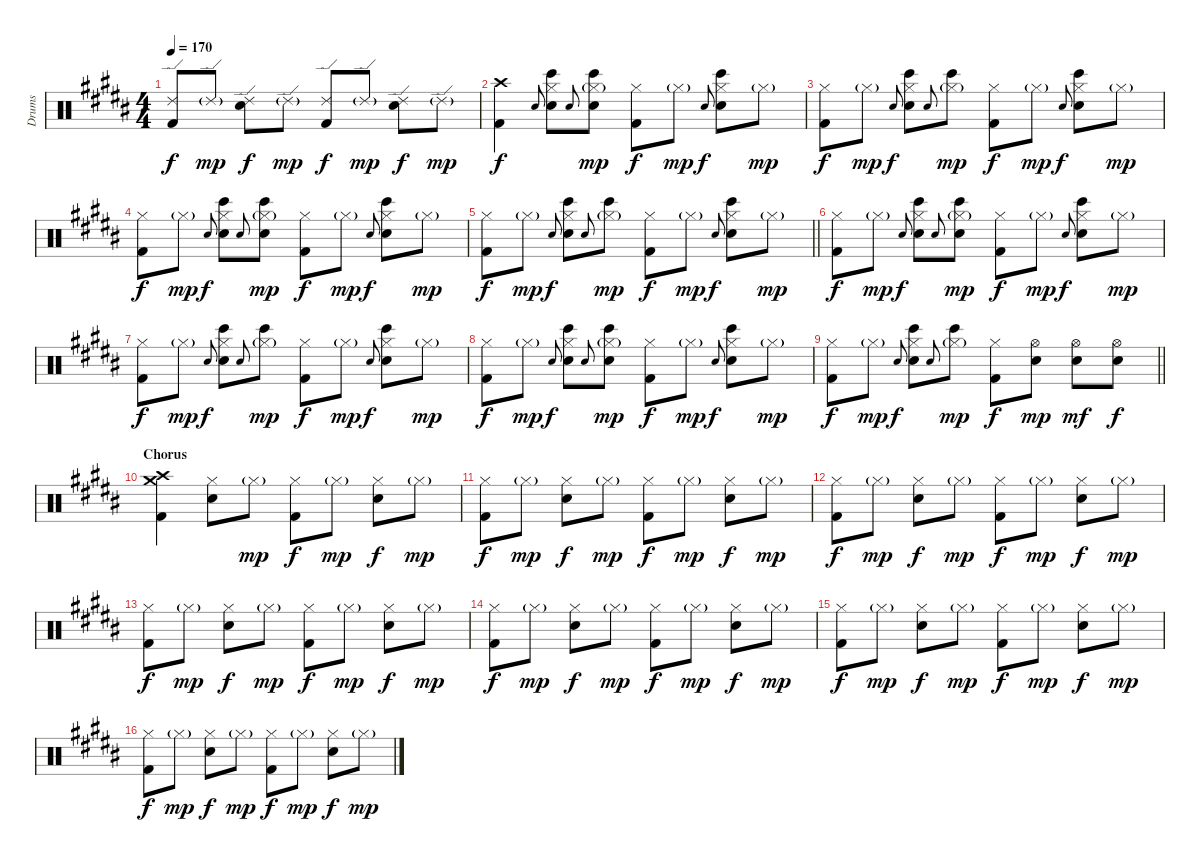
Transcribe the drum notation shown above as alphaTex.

\track ("Drums" "Drums") {instrument percussion}
\staff {score}
\articulation defaults
\ts (4 4)
\tempo 170
\clef neutral
\ks b
("Ride (edge) 2" "Kick (hit) 2").8{dy f} "Ride (edge) 2"{g}.8{dy mp} ("Ride (edge) 2" "Electric Snare (hit)").8{dy f} "Ride (edge) 2"{g}.8{dy mp} ("Ride (edge) 2" "Kick (hit) 2").8{dy f} "Ride (edge) 2"{g}.8{dy mp} ("Ride (edge) 2" "Electric Snare (hit)").8{dy f} "Ride (edge) 2"{g}.8{dy mp} |
("Crash high (hit)" "Kick (hit) 2").4{dy f} "Snare (hit)".8{gr onbeat} ("Hi-Hat (closed)" "Bongo High (hit)" "Electric Snare (hit)").8 "Snare (hit)".8{gr onbeat} ("Hi-Hat (closed)"{g} "Bongo High (hit)" "Electric Snare (hit)").8{dy mp} ("Hi-Hat (closed)" "Kick (hit) 2").8{dy f} "Hi-Hat (closed)"{g}.8{dy mp} "Snare (hit)".8{gr onbeat dy f} ("Hi-Hat (closed)" "Bongo High (hit)" "Electric Snare (hit)").8 "Hi-Hat (closed)"{g}.8{dy mp} |
("Hi-Hat (closed)" "Kick (hit) 2").8{dy f} "Hi-Hat (closed)"{g}.8{dy mp} "Snare (hit)".8{gr onbeat dy f} ("Hi-Hat (closed)" "Bongo High (hit)" "Electric Snare (hit)").8 "Snare (hit)".8{gr onbeat} ("Hi-Hat (closed)"{g} "Bongo High (hit)").8{dy mp} ("Hi-Hat (closed)" "Kick (hit) 2").8{dy f} "Hi-Hat (closed)"{g}.8{dy mp} "Snare (hit)".8{gr onbeat dy f} ("Hi-Hat (closed)" "Bongo High (hit)" "Electric Snare (hit)").8 "Hi-Hat (closed)"{g}.8{dy mp} |
("Hi-Hat (closed)" "Kick (hit) 2").8{dy f} "Hi-Hat (closed)"{g}.8{dy mp} "Snare (hit)".8{gr onbeat dy f} ("Hi-Hat (closed)" "Bongo High (hit)" "Electric Snare (hit)").8 "Snare (hit)".8{gr onbeat} ("Hi-Hat (closed)"{g} "Bongo High (hit)" "Electric Snare (hit)").8{dy mp} ("Hi-Hat (closed)" "Kick (hit) 2").8{dy f} "Hi-Hat (closed)"{g}.8{dy mp} "Snare (hit)".8{gr onbeat dy f} ("Hi-Hat (closed)" "Bongo High (hit)" "Electric Snare (hit)").8 "Hi-Hat (closed)"{g}.8{dy mp} |
\barLineRight lightlight
("Hi-Hat (closed)" "Kick (hit) 2").8{dy f} "Hi-Hat (closed)"{g}.8{dy mp} "Snare (hit)".8{gr onbeat dy f} ("Hi-Hat (closed)" "Bongo High (hit)" "Electric Snare (hit)").8 "Snare (hit)".8{gr onbeat} ("Hi-Hat (closed)"{g} "Bongo High (hit)").8{dy mp} ("Hi-Hat (closed)" "Kick (hit) 2").8{dy f} "Hi-Hat (closed)"{g}.8{dy mp} "Snare (hit)".8{gr onbeat dy f} ("Hi-Hat (closed)" "Bongo High (hit)" "Electric Snare (hit)").8 "Hi-Hat (closed)"{g}.8{dy mp} |
("Hi-Hat (closed)" "Kick (hit) 2").8{dy f} "Hi-Hat (closed)"{g}.8{dy mp} "Snare (hit)".8{gr onbeat dy f} ("Hi-Hat (closed)" "Bongo High (hit)" "Electric Snare (hit)").8 "Snare (hit)".8{gr onbeat} ("Hi-Hat (closed)"{g} "Bongo High (hit)" "Electric Snare (hit)").8{dy mp} ("Hi-Hat (closed)" "Kick (hit) 2").8{dy f} "Hi-Hat (closed)"{g}.8{dy mp} "Snare (hit)".8{gr onbeat dy f} ("Hi-Hat (closed)" "Bongo High (hit)" "Electric Snare (hit)").8 "Hi-Hat (closed)"{g}.8{dy mp} |
("Hi-Hat (closed)" "Kick (hit) 2").8{dy f} "Hi-Hat (closed)"{g}.8{dy mp} "Snare (hit)".8{gr onbeat dy f} ("Hi-Hat (closed)" "Bongo High (hit)" "Electric Snare (hit)").8 "Snare (hit)".8{gr onbeat} ("Hi-Hat (closed)"{g} "Bongo High (hit)").8{dy mp} ("Hi-Hat (closed)" "Kick (hit) 2").8{dy f} "Hi-Hat (closed)"{g}.8{dy mp} "Snare (hit)".8{gr onbeat dy f} ("Hi-Hat (closed)" "Bongo High (hit)" "Electric Snare (hit)").8 "Hi-Hat (closed)"{g}.8{dy mp} |
("Hi-Hat (closed)" "Kick (hit) 2").8{dy f} "Hi-Hat (closed)"{g}.8{dy mp} "Snare (hit)".8{gr onbeat dy f} ("Hi-Hat (closed)" "Bongo High (hit)" "Electric Snare (hit)").8 "Snare (hit)".8{gr onbeat} ("Hi-Hat (closed)"{g} "Bongo High (hit)" "Electric Snare (hit)").8{dy mp} ("Hi-Hat (closed)" "Kick (hit) 2").8{dy f} "Hi-Hat (closed)"{g}.8{dy mp} "Snare (hit)".8{gr onbeat dy f} ("Hi-Hat (closed)" "Bongo High (hit)" "Electric Snare (hit)").8 "Hi-Hat (closed)"{g}.8{dy mp} |
\barLineRight lightlight
("Hi-Hat (closed)" "Kick (hit) 2").8{dy f} "Hi-Hat (closed)"{g}.8{dy mp} "Snare (hit)".8{gr onbeat dy f} ("Hi-Hat (closed)" "Bongo High (hit)" "Electric Snare (hit)").8 "Snare (hit)".8{gr onbeat} ("Hi-Hat (closed)"{g} "Bongo High (hit)").8{dy mp} ("Hi-Hat (closed)" "Kick (hit) 2").8{dy f} ("Hi-Hat (open)" "Electric Snare (hit)").8{dy mp} ("Hi-Hat (open)" "Electric Snare (hit)").8{dy mf} ("Hi-Hat (open)" "Electric Snare (hit)").8{dy f} |
\section ("" "Chorus")
("Crash medium (hit)" "Crash high (hit)" "Kick (hit) 2").4 ("Hi-Hat (closed)" "Electric Snare (hit)").8 "Hi-Hat (closed)"{g}.8{dy mp} ("Hi-Hat (closed)" "Kick (hit) 2").8{dy f} "Hi-Hat (closed)"{g}.8{dy mp} ("Hi-Hat (closed)" "Electric Snare (hit)").8{dy f} "Hi-Hat (closed)"{g}.8{dy mp} |
("Hi-Hat (closed)" "Kick (hit) 2").8{dy f} "Hi-Hat (closed)"{g}.8{dy mp} ("Hi-Hat (closed)" "Electric Snare (hit)").8{dy f} "Hi-Hat (closed)"{g}.8{dy mp} ("Hi-Hat (closed)" "Kick (hit) 2").8{dy f} "Hi-Hat (closed)"{g}.8{dy mp} ("Hi-Hat (closed)" "Electric Snare (hit)").8{dy f} "Hi-Hat (closed)"{g}.8{dy mp} |
("Hi-Hat (closed)" "Kick (hit) 2").8{dy f} "Hi-Hat (closed)"{g}.8{dy mp} ("Hi-Hat (closed)" "Electric Snare (hit)").8{dy f} "Hi-Hat (closed)"{g}.8{dy mp} ("Hi-Hat (closed)" "Kick (hit) 2").8{dy f} "Hi-Hat (closed)"{g}.8{dy mp} ("Hi-Hat (closed)" "Electric Snare (hit)").8{dy f} "Hi-Hat (closed)"{g}.8{dy mp} |
("Hi-Hat (closed)" "Kick (hit) 2").8{dy f} "Hi-Hat (closed)"{g}.8{dy mp} ("Hi-Hat (closed)" "Electric Snare (hit)").8{dy f} "Hi-Hat (closed)"{g}.8{dy mp} ("Hi-Hat (closed)" "Kick (hit) 2").8{dy f} "Hi-Hat (closed)"{g}.8{dy mp} ("Hi-Hat (closed)" "Electric Snare (hit)").8{dy f} "Hi-Hat (closed)"{g}.8{dy mp} |
("Hi-Hat (closed)" "Kick (hit) 2").8{dy f} "Hi-Hat (closed)"{g}.8{dy mp} ("Hi-Hat (closed)" "Electric Snare (hit)").8{dy f} "Hi-Hat (closed)"{g}.8{dy mp} ("Hi-Hat (closed)" "Kick (hit) 2").8{dy f} "Hi-Hat (closed)"{g}.8{dy mp} ("Hi-Hat (closed)" "Electric Snare (hit)").8{dy f} "Hi-Hat (closed)"{g}.8{dy mp} |
("Hi-Hat (closed)" "Kick (hit) 2").8{dy f} "Hi-Hat (closed)"{g}.8{dy mp} ("Hi-Hat (closed)" "Electric Snare (hit)").8{dy f} "Hi-Hat (closed)"{g}.8{dy mp} ("Hi-Hat (closed)" "Kick (hit) 2").8{dy f} "Hi-Hat (closed)"{g}.8{dy mp} ("Hi-Hat (closed)" "Electric Snare (hit)").8{dy f} "Hi-Hat (closed)"{g}.8{dy mp} |
("Hi-Hat (closed)" "Kick (hit) 2").8{dy f} "Hi-Hat (closed)"{g}.8{dy mp} ("Hi-Hat (closed)" "Electric Snare (hit)").8{dy f} "Hi-Hat (closed)"{g}.8{dy mp} ("Hi-Hat (closed)" "Kick (hit) 2").8{dy f} "Hi-Hat (closed)"{g}.8{dy mp} ("Hi-Hat (closed)" "Electric Snare (hit)").8{dy f} "Hi-Hat (closed)"{g}.8{dy mp}
